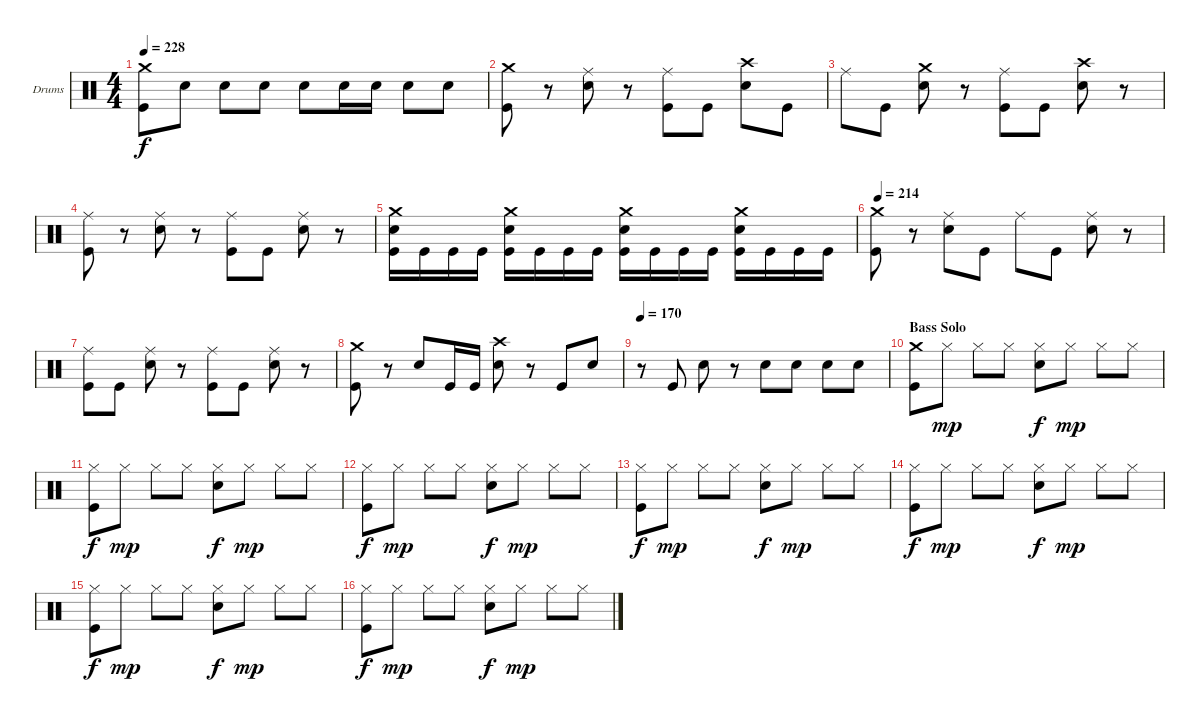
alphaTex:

\bracketExtendMode groupsimilarinstruments
\firstSystemTrackNameOrientation horizontal
\otherSystemsTrackNameOrientation horizontal
\track ("Drumkit" "Drums") {instrument percussion}
\staff {score}
\articulation defaults
\ts (4 4)
\tempo 228
\clef neutral
\ks c
("Crash medium (hit)" "Kick (hit)").8{dy f} "Snare (hit) 2".8 "Snare (hit) 2".8 "Snare (hit) 2".8 "Snare (hit) 2".8 "Snare (hit) 2".16 "Snare (hit) 2".16 "Snare (hit) 2".8 "Snare (hit) 2".8 |
("Crash medium (hit)" "Kick (hit)").8 r.8 ("Ride (middle)" "Snare (hit) 2").8 r.8 ("Ride (middle)" "Kick (hit)").8 "Kick (hit)".8 ("Crash high (hit)" "Snare (hit) 2").8 "Kick (hit)".8 |
"Ride (middle)".8 "Kick (hit)".8 ("Crash medium (hit)" "Snare (hit) 2").8 r.8 ("Ride (middle)" "Kick (hit)").8 "Kick (hit)".8 ("Crash high (hit)" "Snare (hit) 2").8 r.8 |
("Ride (middle)" "Kick (hit)").8 r.8 ("Ride (middle)" "Snare (hit) 2").8 r.8 ("Ride (middle)" "Kick (hit)").8 "Kick (hit)".8 ("Ride (middle)" "Snare (hit) 2").8 r.8 |
("Crash medium (hit)" "Snare (hit) 2" "Kick (hit)").16 "Kick (hit)".16 "Kick (hit)".16 "Kick (hit)".16 ("Crash medium (hit)" "Snare (hit) 2" "Kick (hit)").16 "Kick (hit)".16 "Kick (hit)".16 "Kick (hit)".16 ("Crash medium (hit)" "Snare (hit) 2" "Kick (hit)").16 "Kick (hit)".16 "Kick (hit)".16 "Kick (hit)".16 ("Crash medium (hit)" "Snare (hit) 2" "Kick (hit)").16 "Kick (hit)".16 "Kick (hit)".16 "Kick (hit)".16 |
\tempo (214 0.00625)
("Crash medium (hit)" "Kick (hit)").8 r.8 ("Ride (middle)" "Snare (hit) 2").8 "Kick (hit)".8 "Ride (middle)".8 "Kick (hit)".8 ("Ride (middle)" "Snare (hit) 2").8 r.8 |
("Ride (middle)" "Kick (hit)").8 "Kick (hit)".8 ("Ride (middle)" "Snare (hit) 2").8 r.8 ("Ride (middle)" "Kick (hit)").8 "Kick (hit)".8 ("Ride (middle)" "Snare (hit) 2").8 r.8 |
("Crash medium (hit)" "Kick (hit)").8 r.8 "Snare (hit) 2".8 "Kick (hit)".16 "Kick (hit)".16 ("Crash high (hit)" "Snare (hit) 2").8 r.8 "Kick (hit)".8 "Snare (hit) 2".8 |
\tempo 170
r.8 "Kick (hit)".8 "Snare (hit) 2".8 r.8 "Snare (hit) 2".8 "Snare (hit) 2".8 "Snare (hit) 2".8 "Snare (hit) 2".8 |
\section ("" "Bass Solo")
("Crash medium (hit)" "Kick (hit)").8 "Hi-Hat (closed)".8{dy mp} "Hi-Hat (closed)".8 "Hi-Hat (closed)".8 ("Hi-Hat (closed)" "Snare (hit) 2").8{dy f} "Hi-Hat (closed)".8{dy mp} "Hi-Hat (closed)".8 "Hi-Hat (closed)".8 |
("Hi-Hat (closed)" "Kick (hit)").8{dy f} "Hi-Hat (closed)".8{dy mp} "Hi-Hat (closed)".8 "Hi-Hat (closed)".8 ("Hi-Hat (closed)" "Snare (hit) 2").8{dy f} "Hi-Hat (closed)".8{dy mp} "Hi-Hat (closed)".8 "Hi-Hat (closed)".8 |
("Hi-Hat (closed)" "Kick (hit)").8{dy f} "Hi-Hat (closed)".8{dy mp} "Hi-Hat (closed)".8 "Hi-Hat (closed)".8 ("Hi-Hat (closed)" "Snare (hit) 2").8{dy f} "Hi-Hat (closed)".8{dy mp} "Hi-Hat (closed)".8 "Hi-Hat (closed)".8 |
("Hi-Hat (closed)" "Kick (hit)").8{dy f} "Hi-Hat (closed)".8{dy mp} "Hi-Hat (closed)".8 "Hi-Hat (closed)".8 ("Hi-Hat (closed)" "Snare (hit) 2").8{dy f} "Hi-Hat (closed)".8{dy mp} "Hi-Hat (closed)".8 "Hi-Hat (closed)".8 |
("Hi-Hat (closed)" "Kick (hit)").8{dy f} "Hi-Hat (closed)".8{dy mp} "Hi-Hat (closed)".8 "Hi-Hat (closed)".8 ("Hi-Hat (closed)" "Snare (hit) 2").8{dy f} "Hi-Hat (closed)".8{dy mp} "Hi-Hat (closed)".8 "Hi-Hat (closed)".8 |
("Hi-Hat (closed)" "Kick (hit)").8{dy f} "Hi-Hat (closed)".8{dy mp} "Hi-Hat (closed)".8 "Hi-Hat (closed)".8 ("Hi-Hat (closed)" "Snare (hit) 2").8{dy f} "Hi-Hat (closed)".8{dy mp} "Hi-Hat (closed)".8 "Hi-Hat (closed)".8 |
("Hi-Hat (closed)" "Kick (hit)").8{dy f} "Hi-Hat (closed)".8{dy mp} "Hi-Hat (closed)".8 "Hi-Hat (closed)".8 ("Hi-Hat (closed)" "Snare (hit) 2").8{dy f} "Hi-Hat (closed)".8{dy mp} "Hi-Hat (closed)".8 "Hi-Hat (closed)".8
